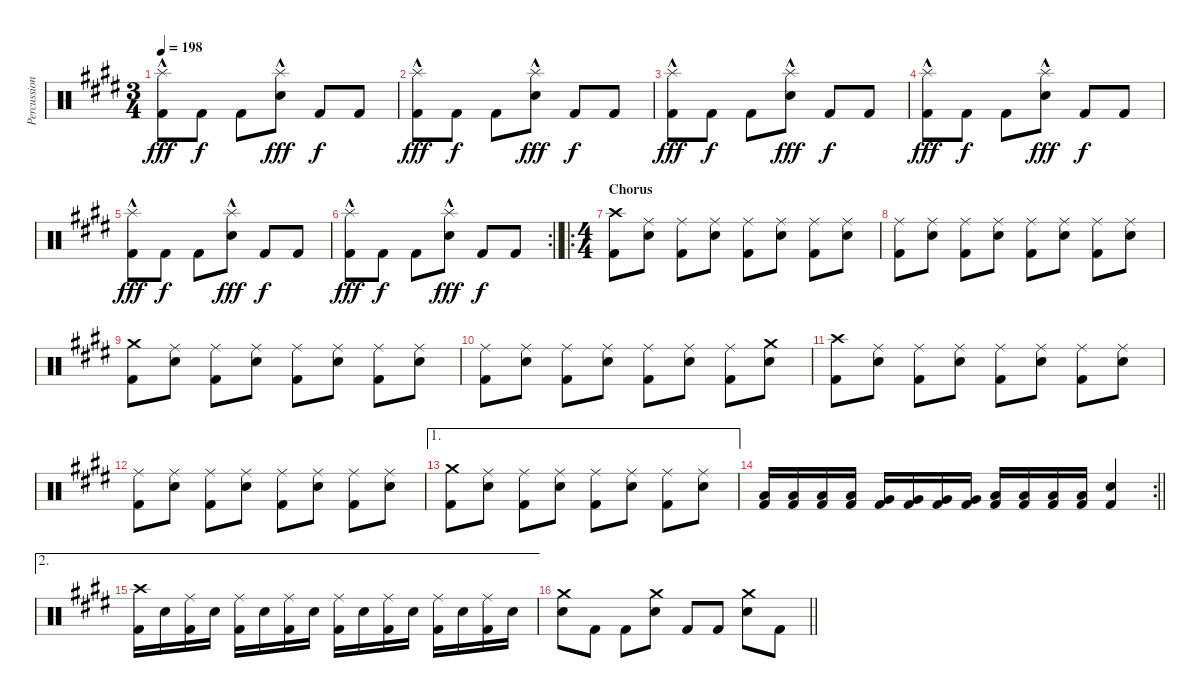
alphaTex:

\track ("Percussion" "Percussion") {instrument percussion}
\staff {score}
\articulation defaults
\ts (3 4)
\tempo 198
\clef neutral
\ks e
("Splash (hit)"{hac} "Kick (hit) 2").8{dy fff} "Kick (hit) 2".8{dy f} "Kick (hit) 2".8 ("Splash (hit)"{hac} "Snare (hit) 2").8{dy fff} "Kick (hit) 2".8{dy f} "Kick (hit) 2".8 |
("Splash (hit)"{hac} "Kick (hit) 2").8{dy fff} "Kick (hit) 2".8{dy f} "Kick (hit) 2".8 ("Splash (hit)"{hac} "Snare (hit) 2").8{dy fff} "Kick (hit) 2".8{dy f} "Kick (hit) 2".8 |
("Splash (hit)"{hac} "Kick (hit) 2").8{dy fff} "Kick (hit) 2".8{dy f} "Kick (hit) 2".8 ("Splash (hit)"{hac} "Snare (hit) 2").8{dy fff} "Kick (hit) 2".8{dy f} "Kick (hit) 2".8 |
("Splash (hit)"{hac} "Kick (hit) 2").8{dy fff} "Kick (hit) 2".8{dy f} "Kick (hit) 2".8 ("Splash (hit)"{hac} "Snare (hit) 2").8{dy fff} "Kick (hit) 2".8{dy f} "Kick (hit) 2".8 |
("Splash (hit)"{hac} "Kick (hit) 2").8{dy fff} "Kick (hit) 2".8{dy f} "Kick (hit) 2".8 ("Splash (hit)"{hac} "Snare (hit) 2").8{dy fff} "Kick (hit) 2".8{dy f} "Kick (hit) 2".8 |
\rc 2
\barLineRight lightlight
("Splash (hit)"{hac} "Kick (hit) 2").8{dy fff} "Kick (hit) 2".8{dy f} "Kick (hit) 2".8 ("Splash (hit)"{hac} "Snare (hit) 2").8{dy fff} "Kick (hit) 2".8{dy f} "Kick (hit) 2".8 |
\ro
\ts (4 4)
\section ("" "Chorus")
("Crash high (hit)" "Kick (hit) 2").8 ("Ride (middle)" "Snare (hit) 2").8 ("Ride (middle)" "Kick (hit) 2").8 ("Ride (middle)" "Snare (hit) 2").8 ("Ride (middle)" "Kick (hit) 2").8 ("Ride (middle)" "Snare (hit) 2").8 ("Ride (middle)" "Kick (hit) 2").8 ("Ride (middle)" "Snare (hit) 2").8 |
("Ride (middle)" "Kick (hit) 2").8 ("Ride (middle)" "Snare (hit) 2").8 ("Ride (middle)" "Kick (hit) 2").8 ("Ride (middle)" "Snare (hit) 2").8 ("Ride (middle)" "Kick (hit) 2").8 ("Ride (middle)" "Snare (hit) 2").8 ("Ride (middle)" "Kick (hit) 2").8 ("Ride (middle)" "Snare (hit) 2").8 |
("Crash medium (hit)" "Kick (hit) 2").8 ("Ride (middle)" "Snare (hit) 2").8 ("Ride (middle)" "Kick (hit) 2").8 ("Ride (middle)" "Snare (hit) 2").8 ("Ride (middle)" "Kick (hit) 2").8 ("Ride (middle)" "Snare (hit) 2").8 ("Ride (middle)" "Kick (hit) 2").8 ("Ride (middle)" "Snare (hit) 2").8 |
("Ride (middle)" "Kick (hit) 2").8 ("Ride (middle)" "Snare (hit) 2").8 ("Ride (middle)" "Kick (hit) 2").8 ("Ride (middle)" "Snare (hit) 2").8 ("Ride (middle)" "Kick (hit) 2").8 ("Ride (middle)" "Snare (hit) 2").8 ("Ride (middle)" "Kick (hit) 2").8 ("Crash medium (hit)" "Snare (hit) 2").8 |
("Crash high (hit)" "Kick (hit) 2").8 ("Ride (middle)" "Snare (hit) 2").8 ("Ride (middle)" "Kick (hit) 2").8 ("Ride (middle)" "Snare (hit) 2").8 ("Ride (middle)" "Kick (hit) 2").8 ("Ride (middle)" "Snare (hit) 2").8 ("Ride (middle)" "Kick (hit) 2").8 ("Ride (middle)" "Snare (hit) 2").8 |
("Ride (middle)" "Kick (hit) 2").8 ("Ride (middle)" "Snare (hit) 2").8 ("Ride (middle)" "Kick (hit) 2").8 ("Ride (middle)" "Snare (hit) 2").8 ("Ride (middle)" "Kick (hit) 2").8 ("Ride (middle)" "Snare (hit) 2").8 ("Ride (middle)" "Kick (hit) 2").8 ("Ride (middle)" "Snare (hit) 2").8 |
\ae 1
("Crash medium (hit)" "Kick (hit) 2").8 ("Ride (middle)" "Snare (hit) 2").8 ("Ride (middle)" "Kick (hit) 2").8 ("Ride (middle)" "Snare (hit) 2").8 ("Ride (middle)" "Kick (hit) 2").8 ("Ride (middle)" "Snare (hit) 2").8 ("Ride (middle)" "Kick (hit) 2").8 ("Ride (middle)" "Snare (hit) 2").8 |
\rc 2
\barLineRight lightlight
("Low Tom (hit)" "Kick (hit) 2").16 ("Low Tom (hit)" "Kick (hit) 2").16 ("Low Tom (hit)" "Kick (hit) 2").16 ("Low Tom (hit)" "Kick (hit) 2").16 ("Very Low Tom (hit)" "Kick (hit) 2").16 ("Very Low Tom (hit)" "Kick (hit) 2").16 ("Very Low Tom (hit)" "Kick (hit) 2").16 ("Very Low Tom (hit)" "Kick (hit) 2").16 ("Low Floor Tom (hit)" "Kick (hit) 2").16 ("Low Floor Tom (hit)" "Kick (hit) 2").16 ("Low Floor Tom (hit)" "Kick (hit) 2").16 ("Low Floor Tom (hit)" "Kick (hit) 2").16 ("Snare (hit) 2" "Kick (hit) 2").4 |
\ae 2
("Crash high (hit)" "Kick (hit) 2").16 "Snare (hit) 2".16 ("Ride (middle)" "Kick (hit) 2").16 "Snare (hit) 2".16 ("Ride (middle)" "Kick (hit) 2").16 "Snare (hit) 2".16 ("Ride (middle)" "Kick (hit) 2").16 "Snare (hit) 2".16 ("Ride (middle)" "Kick (hit) 2").16 "Snare (hit) 2".16 ("Ride (middle)" "Kick (hit) 2").16 "Snare (hit) 2".16 ("Ride (middle)" "Kick (hit) 2").16 "Snare (hit) 2".16 ("Ride (middle)" "Kick (hit) 2").16 "Snare (hit) 2".16 |
\barLineRight lightlight
("Crash medium (hit)" "Snare (hit) 2").8 "Kick (hit) 2".8 "Kick (hit) 2".8 ("Crash medium (hit)" "Snare (hit) 2").8 "Kick (hit) 2".8 "Kick (hit) 2".8 ("Crash medium (hit)" "Snare (hit) 2").8 "Kick (hit) 2".8
